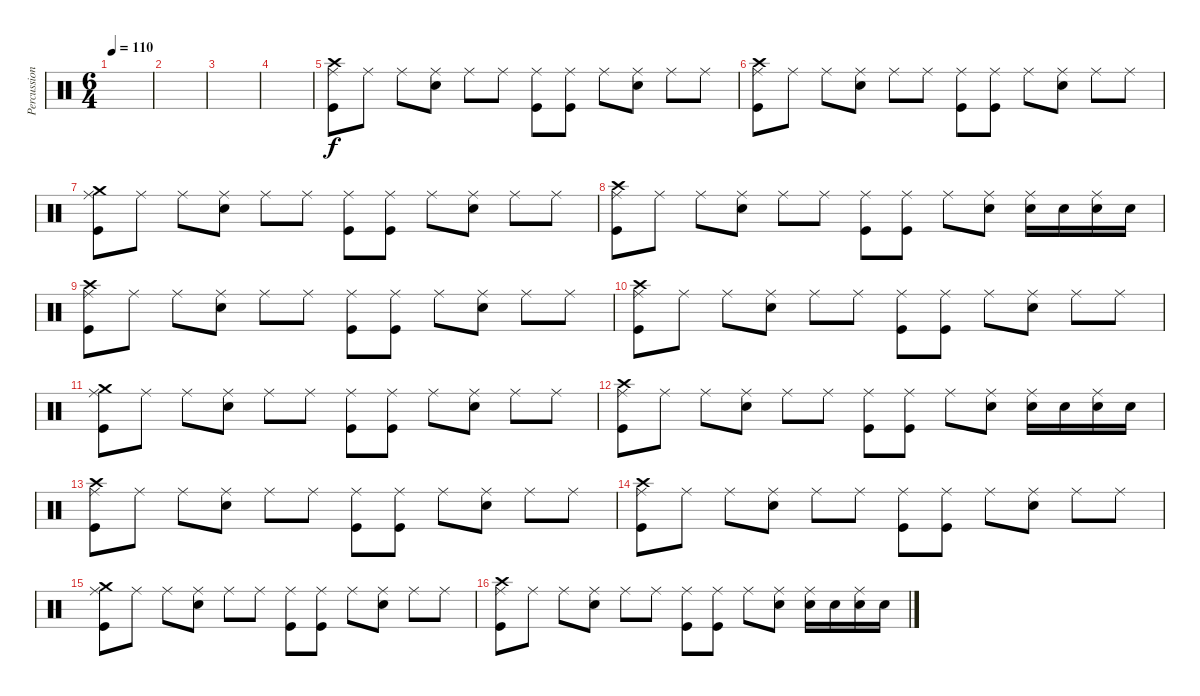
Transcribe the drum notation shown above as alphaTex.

\track ("Percussion" "Percussion") {instrument percussion}
\staff {score}
\articulation defaults
\ts (6 4)
\tempo 110
\clef neutral
\ks c
|
|
|
|
("Crash high (hit)" "Ride (middle)" "Kick (hit)").8 "Ride (middle)".8 "Ride (middle)".8 ("Ride (middle)" "Electric Snare (hit)").8 "Ride (middle)".8 "Ride (middle)".8 ("Ride (middle)" "Kick (hit)").8 ("Ride (middle)" "Kick (hit)").8 "Ride (middle)".8 ("Ride (middle)" "Electric Snare (hit)").8 "Ride (middle)".8 "Ride (middle)".8 |
("Crash high (hit)" "Ride (middle)" "Kick (hit)").8 "Ride (middle)".8 "Ride (middle)".8 ("Ride (middle)" "Electric Snare (hit)").8 "Ride (middle)".8 "Ride (middle)".8 ("Ride (middle)" "Kick (hit)").8 ("Ride (middle)" "Kick (hit)").8 "Ride (middle)".8 ("Ride (middle)" "Electric Snare (hit)").8 "Ride (middle)".8 "Ride (middle)".8 |
("Crash medium (hit)" "Ride (middle)" "Kick (hit)").8 "Ride (middle)".8 "Ride (middle)".8 ("Ride (middle)" "Electric Snare (hit)").8 "Ride (middle)".8 "Ride (middle)".8 ("Ride (middle)" "Kick (hit)").8 ("Ride (middle)" "Kick (hit)").8 "Ride (middle)".8 ("Ride (middle)" "Electric Snare (hit)").8 "Ride (middle)".8 "Ride (middle)".8 |
("Crash high (hit)" "Ride (middle)" "Kick (hit)").8 "Ride (middle)".8 "Ride (middle)".8 ("Ride (middle)" "Electric Snare (hit)").8 "Ride (middle)".8 "Ride (middle)".8 ("Ride (middle)" "Kick (hit)").8 ("Ride (middle)" "Kick (hit)").8 "Ride (middle)".8 ("Ride (middle)" "Electric Snare (hit)").8 ("Ride (middle)" "Electric Snare (hit)").16 "Electric Snare (hit)".16 ("Ride (middle)" "Electric Snare (hit)").16 "Electric Snare (hit)".16 |
("Crash high (hit)" "Ride (middle)" "Kick (hit)").8 "Ride (middle)".8 "Ride (middle)".8 ("Ride (middle)" "Electric Snare (hit)").8 "Ride (middle)".8 "Ride (middle)".8 ("Ride (middle)" "Kick (hit)").8 ("Ride (middle)" "Kick (hit)").8 "Ride (middle)".8 ("Ride (middle)" "Electric Snare (hit)").8 "Ride (middle)".8 "Ride (middle)".8 |
("Crash high (hit)" "Ride (middle)" "Kick (hit)").8 "Ride (middle)".8 "Ride (middle)".8 ("Ride (middle)" "Electric Snare (hit)").8 "Ride (middle)".8 "Ride (middle)".8 ("Ride (middle)" "Kick (hit)").8 ("Ride (middle)" "Kick (hit)").8 "Ride (middle)".8 ("Ride (middle)" "Electric Snare (hit)").8 "Ride (middle)".8 "Ride (middle)".8 |
("Crash medium (hit)" "Ride (middle)" "Kick (hit)").8 "Ride (middle)".8 "Ride (middle)".8 ("Ride (middle)" "Electric Snare (hit)").8 "Ride (middle)".8 "Ride (middle)".8 ("Ride (middle)" "Kick (hit)").8 ("Ride (middle)" "Kick (hit)").8 "Ride (middle)".8 ("Ride (middle)" "Electric Snare (hit)").8 "Ride (middle)".8 "Ride (middle)".8 |
("Crash high (hit)" "Ride (middle)" "Kick (hit)").8 "Ride (middle)".8 "Ride (middle)".8 ("Ride (middle)" "Electric Snare (hit)").8 "Ride (middle)".8 "Ride (middle)".8 ("Ride (middle)" "Kick (hit)").8 ("Ride (middle)" "Kick (hit)").8 "Ride (middle)".8 ("Ride (middle)" "Electric Snare (hit)").8 ("Ride (middle)" "Electric Snare (hit)").16 "Electric Snare (hit)".16 ("Ride (middle)" "Electric Snare (hit)").16 "Electric Snare (hit)".16 |
("Crash high (hit)" "Ride (middle)" "Kick (hit)").8 "Ride (middle)".8 "Ride (middle)".8 ("Ride (middle)" "Electric Snare (hit)").8 "Ride (middle)".8 "Ride (middle)".8 ("Ride (middle)" "Kick (hit)").8 ("Ride (middle)" "Kick (hit)").8 "Ride (middle)".8 ("Ride (middle)" "Electric Snare (hit)").8 "Ride (middle)".8 "Ride (middle)".8 |
("Crash high (hit)" "Ride (middle)" "Kick (hit)").8 "Ride (middle)".8 "Ride (middle)".8 ("Ride (middle)" "Electric Snare (hit)").8 "Ride (middle)".8 "Ride (middle)".8 ("Ride (middle)" "Kick (hit)").8 ("Ride (middle)" "Kick (hit)").8 "Ride (middle)".8 ("Ride (middle)" "Electric Snare (hit)").8 "Ride (middle)".8 "Ride (middle)".8 |
("Crash medium (hit)" "Ride (middle)" "Kick (hit)").8 "Ride (middle)".8 "Ride (middle)".8 ("Ride (middle)" "Electric Snare (hit)").8 "Ride (middle)".8 "Ride (middle)".8 ("Ride (middle)" "Kick (hit)").8 ("Ride (middle)" "Kick (hit)").8 "Ride (middle)".8 ("Ride (middle)" "Electric Snare (hit)").8 "Ride (middle)".8 "Ride (middle)".8 |
("Crash high (hit)" "Ride (middle)" "Kick (hit)").8 "Ride (middle)".8 "Ride (middle)".8 ("Ride (middle)" "Electric Snare (hit)").8 "Ride (middle)".8 "Ride (middle)".8 ("Ride (middle)" "Kick (hit)").8 ("Ride (middle)" "Kick (hit)").8 "Ride (middle)".8 ("Ride (middle)" "Electric Snare (hit)").8 ("Ride (middle)" "Electric Snare (hit)").16 "Electric Snare (hit)".16 ("Ride (middle)" "Electric Snare (hit)").16 "Electric Snare (hit)".16
